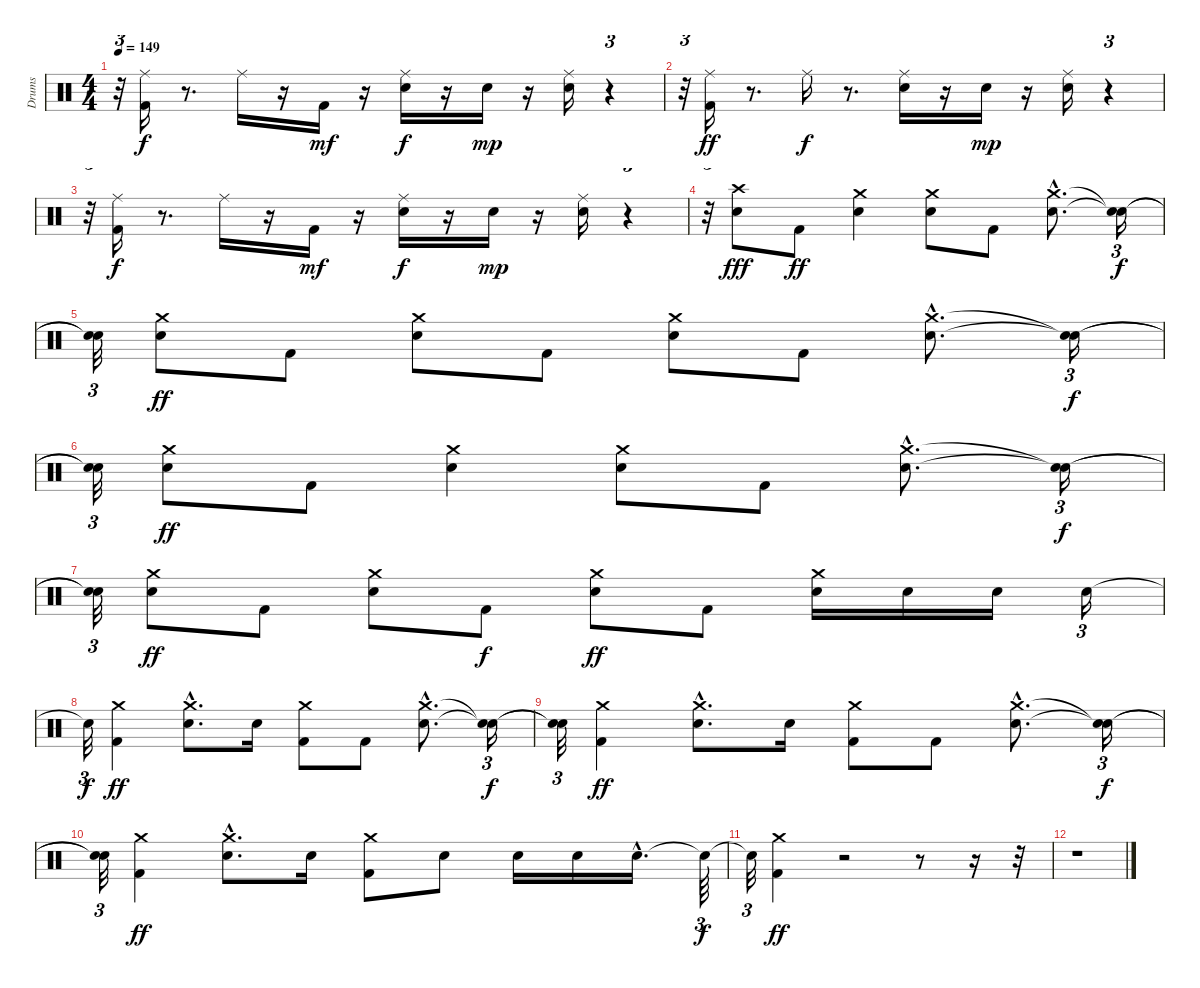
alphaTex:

\track ("Drums" "Drums") {instrument percussion}
\staff {score}
\articulation defaults
\ts (4 4)
\tempo 149
\clef neutral
\ks c
r.32{tu (3 2) dy mp} ("Ride (middle)" "Kick (hit) 2").16{dy f} r.8{d} "Ride (middle)".16 r.16 "Kick (hit) 2".16{dy mf} r.16 ("Snare (hit) 2" "Ride (middle)").16{dy f} r.16 "Snare (hit) 2".16{dy mp} r.16 ("Ride (middle)" "Snare (hit) 2").16 r.4{tu (3 2)} |
r.32{tu (3 2)} ("Ride (middle)" "Kick (hit) 2").16{dy ff} r.8{d} "Ride (middle)".16{dy f} r.8{d} ("Snare (hit) 2" "Ride (middle)").16 r.16 "Snare (hit) 2".16{dy mp} r.16 ("Ride (middle)" "Snare (hit) 2").16 r.4{tu (3 2)} |
r.32{tu (3 2)} ("Ride (middle)" "Kick (hit) 2").16{dy f} r.8{d} "Ride (middle)".16 r.16 "Kick (hit) 2".16{dy mf} r.16 ("Snare (hit) 2" "Ride (middle)").16{dy f} r.16 "Snare (hit) 2".16{dy mp} r.16 ("Ride (middle)" "Snare (hit) 2").16 r.4{tu (3 2)} |
r.32{tu (3 2)} ("Electric Snare (hit)" "Crash high (hit)").8{dy fff} "Kick (hit) 2".8{dy ff} ("Crash medium (hit)" "Electric Snare (hit)").4 ("Crash medium (hit)" "Electric Snare (hit)").8 "Kick (hit) 2".8 ("Crash medium (hit)"{hac} "Electric Snare (hit)"{hac}).8{d} ("Snare (hit)"{t} "Snare (hit)"{t}).16{tu (3 2) dy f} |
("Snare (hit)"{t} "Snare (hit)"{t}).32{tu (3 2)} ("Crash medium (hit)" "Electric Snare (hit)").8{dy ff} "Kick (hit) 2".8 ("Crash medium (hit)" "Electric Snare (hit)").8 "Kick (hit) 2".8 ("Crash medium (hit)" "Electric Snare (hit)").8 "Kick (hit) 2".8 ("Crash medium (hit)"{hac} "Electric Snare (hit)"{hac}).8{d} ("Snare (hit)"{t} "Snare (hit)"{t}).16{tu (3 2) dy f} |
("Snare (hit)"{t} "Snare (hit)"{t}).32{tu (3 2)} ("Crash medium (hit)" "Electric Snare (hit)").8{dy ff} "Kick (hit) 2".8 ("Crash medium (hit)" "Electric Snare (hit)").4 ("Crash medium (hit)" "Electric Snare (hit)").8 "Kick (hit) 2".8 ("Crash medium (hit)"{hac} "Electric Snare (hit)"{hac}).8{d} ("Snare (hit)"{t} "Snare (hit)"{t}).16{tu (3 2) dy f} |
("Snare (hit)"{t} "Snare (hit)"{t}).32{tu (3 2)} ("Crash medium (hit)" "Electric Snare (hit)").8{dy ff} "Kick (hit) 2".8 ("Crash medium (hit)" "Electric Snare (hit)").8 "Kick (hit) 2".8{dy f} ("Crash medium (hit)" "Electric Snare (hit)").8{dy ff} "Kick (hit) 2".8 ("Crash medium (hit)" "Electric Snare (hit)").16 "Electric Snare (hit)".16 "Electric Snare (hit)".16 "Electric Snare (hit)".16{tu (3 2)} |
"Snare (hit)"{t}.32{tu (3 2) dy f} ("Crash medium (hit)" "Kick (hit) 2").4{dy ff} ("Crash medium (hit)" "Electric Snare (hit)"{hac}).8{d} "Electric Snare (hit)".16 ("Crash medium (hit)" "Kick (hit) 2").8 "Kick (hit) 2".8 ("Crash medium (hit)"{hac} "Electric Snare (hit)"{hac}).8{d} ("Snare (hit)"{t} "Snare (hit)"{t}).16{tu (3 2) dy f} |
("Snare (hit)"{t} "Snare (hit)"{t}).32{tu (3 2)} ("Crash medium (hit)" "Kick (hit) 2").4{dy ff} ("Crash medium (hit)" "Electric Snare (hit)"{hac}).8{d} "Electric Snare (hit)".16 ("Crash medium (hit)" "Kick (hit) 2").8 "Kick (hit) 2".8 ("Crash medium (hit)"{hac} "Electric Snare (hit)"{hac}).8{d} ("Snare (hit)"{t} "Snare (hit)"{t}).16{tu (3 2) dy f} |
("Snare (hit)"{t} "Snare (hit)"{t}).32{tu (3 2)} ("Crash medium (hit)" "Kick (hit) 2").4{dy ff} ("Crash medium (hit)" "Electric Snare (hit)"{hac}).8{d} "Electric Snare (hit)".16 ("Crash medium (hit)" "Kick (hit) 2").8 "Electric Snare (hit)".8 "Electric Snare (hit)".16 "Electric Snare (hit)".16 "Electric Snare (hit)"{hac}.16{d} "Snare (hit)"{t}.64{tu (3 2) dy f} |
"Snare (hit)"{t}.32{tu (3 2)} ("Crash medium (hit)" "Kick (hit) 2").4{dy ff} r.2 r.8 r.16 r.32 |
r.1
